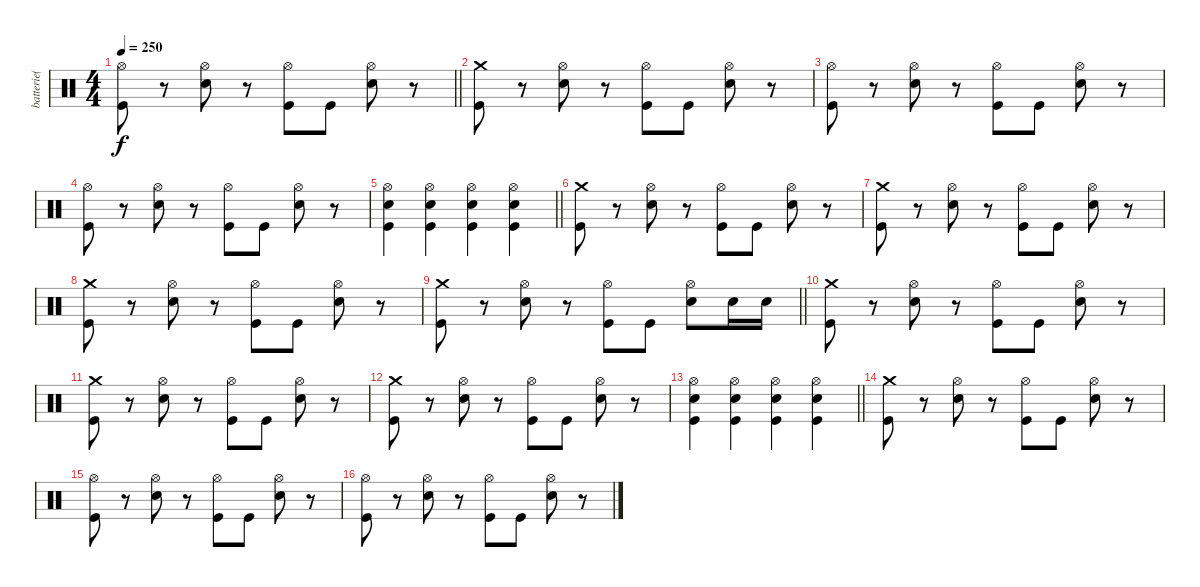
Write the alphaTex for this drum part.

\track ("batterie( Yureesh )" "batterie( ") {instrument percussion}
\staff {score}
\articulation defaults
\ts (4 4)
\tempo 250
\clef neutral
\barLineRight lightlight
\ks c
("Hi-Hat (open)" "Kick (hit)").8{dy f} r.8 ("Hi-Hat (open)" "Snare (hit) 2").8 r.8 ("Hi-Hat (open)" "Kick (hit)").8 "Kick (hit)".8 ("Hi-Hat (open)" "Snare (hit) 2").8 r.8 |
("Crash medium (hit)" "Kick (hit)").8 r.8 ("Hi-Hat (open)" "Snare (hit) 2").8 r.8 ("Hi-Hat (open)" "Kick (hit)").8 "Kick (hit)".8 ("Hi-Hat (open)" "Snare (hit) 2").8 r.8 |
("Hi-Hat (open)" "Kick (hit)").8 r.8 ("Hi-Hat (open)" "Snare (hit) 2").8 r.8 ("Hi-Hat (open)" "Kick (hit)").8 "Kick (hit)".8 ("Hi-Hat (open)" "Snare (hit) 2").8 r.8 |
("Hi-Hat (open)" "Kick (hit)").8 r.8 ("Hi-Hat (open)" "Snare (hit) 2").8 r.8 ("Hi-Hat (open)" "Kick (hit)").8 "Kick (hit)".8 ("Hi-Hat (open)" "Snare (hit) 2").8 r.8 |
\barLineRight lightlight
("Hi-Hat (open)" "Snare (hit) 2" "Kick (hit)").4 ("Hi-Hat (open)" "Snare (hit) 2" "Kick (hit)").4 ("Hi-Hat (open)" "Snare (hit) 2" "Kick (hit)").4 ("Hi-Hat (open)" "Snare (hit) 2" "Kick (hit)").4 |
("Crash medium (hit)" "Kick (hit)").8 r.8 ("Hi-Hat (open)" "Snare (hit) 2").8 r.8 ("Hi-Hat (open)" "Kick (hit)").8 "Kick (hit)".8 ("Hi-Hat (open)" "Snare (hit) 2").8 r.8 |
("Crash medium (hit)" "Kick (hit)").8 r.8 ("Hi-Hat (open)" "Snare (hit) 2").8 r.8 ("Hi-Hat (open)" "Kick (hit)").8 "Kick (hit)".8 ("Hi-Hat (open)" "Snare (hit) 2").8 r.8 |
("Crash medium (hit)" "Kick (hit)").8 r.8 ("Hi-Hat (open)" "Snare (hit) 2").8 r.8 ("Hi-Hat (open)" "Kick (hit)").8 "Kick (hit)".8 ("Hi-Hat (open)" "Snare (hit) 2").8 r.8 |
\barLineRight lightlight
("Crash medium (hit)" "Kick (hit)").8 r.8 ("Hi-Hat (open)" "Snare (hit) 2").8 r.8 ("Hi-Hat (open)" "Kick (hit)").8 "Kick (hit)".8 ("Hi-Hat (open)" "Snare (hit) 2").8 "Snare (hit) 2".16 "Snare (hit) 2".16 |
("Crash medium (hit)" "Kick (hit)").8 r.8 ("Hi-Hat (open)" "Snare (hit) 2").8 r.8 ("Hi-Hat (open)" "Kick (hit)").8 "Kick (hit)".8 ("Hi-Hat (open)" "Snare (hit) 2").8 r.8 |
("Crash medium (hit)" "Kick (hit)").8 r.8 ("Hi-Hat (open)" "Snare (hit) 2").8 r.8 ("Hi-Hat (open)" "Kick (hit)").8 "Kick (hit)".8 ("Hi-Hat (open)" "Snare (hit) 2").8 r.8 |
("Crash medium (hit)" "Kick (hit)").8 r.8 ("Hi-Hat (open)" "Snare (hit) 2").8 r.8 ("Hi-Hat (open)" "Kick (hit)").8 "Kick (hit)".8 ("Hi-Hat (open)" "Snare (hit) 2").8 r.8 |
\barLineRight lightlight
("Hi-Hat (open)" "Snare (hit) 2" "Kick (hit)").4 ("Hi-Hat (open)" "Snare (hit) 2" "Kick (hit)").4 ("Hi-Hat (open)" "Snare (hit) 2" "Kick (hit)").4 ("Hi-Hat (open)" "Snare (hit) 2" "Kick (hit)").4 |
("Crash medium (hit)" "Kick (hit)").8 r.8 ("Hi-Hat (open)" "Snare (hit) 2").8 r.8 ("Hi-Hat (open)" "Kick (hit)").8 "Kick (hit)".8 ("Hi-Hat (open)" "Snare (hit) 2").8 r.8 |
("Hi-Hat (open)" "Kick (hit)").8 r.8 ("Hi-Hat (open)" "Snare (hit) 2").8 r.8 ("Hi-Hat (open)" "Kick (hit)").8 "Kick (hit)".8 ("Hi-Hat (open)" "Snare (hit) 2").8 r.8 |
("Hi-Hat (open)" "Kick (hit)").8 r.8 ("Hi-Hat (open)" "Snare (hit) 2").8 r.8 ("Hi-Hat (open)" "Kick (hit)").8 "Kick (hit)".8 ("Hi-Hat (open)" "Snare (hit) 2").8 r.8
